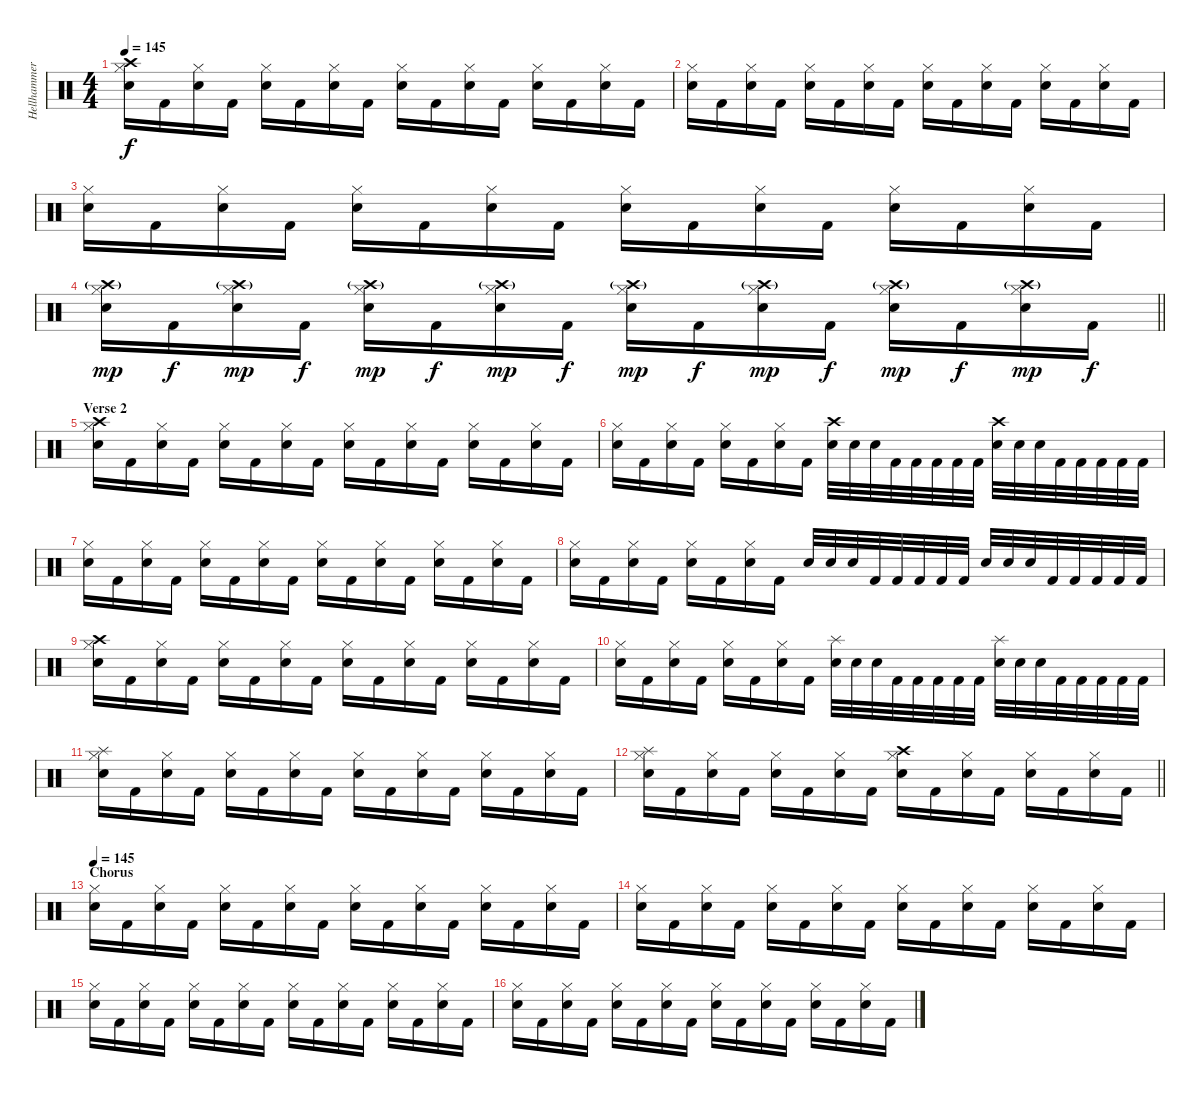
\track ("Hellhammer" "Hellhammer") {instrument percussion}
\staff {score}
\articulation defaults
\ts (4 4)
\tempo 145
\clef neutral
\ks c
("Crash high (hit)" "Hi-Hat (closed)" "Snare (hit) 2").16{dy f} "Kick (hit) 2".16 ("Hi-Hat (closed)" "Snare (hit) 2").16 "Kick (hit) 2".16 ("Hi-Hat (closed)" "Snare (hit) 2").16 "Kick (hit) 2".16 ("Hi-Hat (closed)" "Snare (hit) 2").16 "Kick (hit) 2".16 ("Hi-Hat (closed)" "Snare (hit) 2").16 "Kick (hit) 2".16 ("Hi-Hat (closed)" "Snare (hit) 2").16 "Kick (hit) 2".16 ("Hi-Hat (closed)" "Snare (hit) 2").16 "Kick (hit) 2".16 ("Hi-Hat (closed)" "Snare (hit) 2").16 "Kick (hit) 2".16 |
("Hi-Hat (closed)" "Snare (hit) 2").16 "Kick (hit) 2".16 ("Hi-Hat (closed)" "Snare (hit) 2").16 "Kick (hit) 2".16 ("Hi-Hat (closed)" "Snare (hit) 2").16 "Kick (hit) 2".16 ("Hi-Hat (closed)" "Snare (hit) 2").16 "Kick (hit) 2".16 ("Hi-Hat (closed)" "Snare (hit) 2").16 "Kick (hit) 2".16 ("Hi-Hat (closed)" "Snare (hit) 2").16 "Kick (hit) 2".16 ("Hi-Hat (closed)" "Snare (hit) 2").16 "Kick (hit) 2".16 ("Hi-Hat (closed)" "Snare (hit) 2").16 "Kick (hit) 2".16 |
("Hi-Hat (closed)" "Snare (hit) 2").16 "Kick (hit) 2".16 ("Hi-Hat (closed)" "Snare (hit) 2").16 "Kick (hit) 2".16 ("Hi-Hat (closed)" "Snare (hit) 2").16 "Kick (hit) 2".16 ("Hi-Hat (closed)" "Snare (hit) 2").16 "Kick (hit) 2".16 ("Hi-Hat (closed)" "Snare (hit) 2").16 "Kick (hit) 2".16 ("Hi-Hat (closed)" "Snare (hit) 2").16 "Kick (hit) 2".16 ("Hi-Hat (closed)" "Snare (hit) 2").16 "Kick (hit) 2".16 ("Hi-Hat (closed)" "Snare (hit) 2").16 "Kick (hit) 2".16 |
\barLineRight lightlight
("Crash high (hit)"{g} "Hi-Hat (closed)" "Snare (hit) 2").16{dy mp} "Kick (hit) 2".16{dy f} ("Crash high (hit)"{g} "Hi-Hat (closed)" "Snare (hit) 2").16{dy mp} "Kick (hit) 2".16{dy f} ("Crash high (hit)"{g} "Hi-Hat (closed)" "Snare (hit) 2").16{dy mp} "Kick (hit) 2".16{dy f} ("Crash high (hit)"{g} "Hi-Hat (closed)" "Snare (hit) 2").16{dy mp} "Kick (hit) 2".16{dy f} ("Crash high (hit)"{g} "Hi-Hat (closed)" "Snare (hit) 2").16{dy mp} "Kick (hit) 2".16{dy f} ("Crash high (hit)"{g} "Hi-Hat (closed)" "Snare (hit) 2").16{dy mp} "Kick (hit) 2".16{dy f} ("Crash high (hit)"{g} "Hi-Hat (closed)" "Snare (hit) 2").16{dy mp} "Kick (hit) 2".16{dy f} ("Crash high (hit)"{g} "Hi-Hat (closed)" "Snare (hit) 2").16{dy mp} "Kick (hit) 2".16{dy f} |
\section ("" "Verse 2")
("Crash high (hit)" "Hi-Hat (closed)" "Snare (hit) 2").16 "Kick (hit) 2".16 ("Hi-Hat (closed)" "Snare (hit) 2").16 "Kick (hit) 2".16 ("Hi-Hat (closed)" "Snare (hit) 2").16 "Kick (hit) 2".16 ("Hi-Hat (closed)" "Snare (hit) 2").16 "Kick (hit) 2".16 ("Hi-Hat (closed)" "Snare (hit) 2").16 "Kick (hit) 2".16 ("Hi-Hat (closed)" "Snare (hit) 2").16 "Kick (hit) 2".16 ("Hi-Hat (closed)" "Snare (hit) 2").16 "Kick (hit) 2".16 ("Hi-Hat (closed)" "Snare (hit) 2").16 "Kick (hit) 2".16 |
("Hi-Hat (closed)" "Snare (hit) 2").16 "Kick (hit) 2".16 ("Hi-Hat (closed)" "Snare (hit) 2").16 "Kick (hit) 2".16 ("Hi-Hat (closed)" "Snare (hit) 2").16 "Kick (hit) 2".16 ("Hi-Hat (closed)" "Snare (hit) 2").16 "Kick (hit) 2".16 ("Crash high (hit)" "Snare (hit) 2").32 "Snare (hit) 2".32 "Snare (hit) 2".32 "Kick (hit) 2".32 "Kick (hit) 2".32 "Kick (hit) 2".32 "Kick (hit) 2".32 "Kick (hit) 2".32 ("Crash high (hit)" "Snare (hit) 2").32 "Snare (hit) 2".32 "Snare (hit) 2".32 "Kick (hit) 2".32 "Kick (hit) 2".32 "Kick (hit) 2".32 "Kick (hit) 2".32 "Kick (hit) 2".32 |
("Hi-Hat (closed)" "Snare (hit) 2").16 "Kick (hit) 2".16 ("Hi-Hat (closed)" "Snare (hit) 2").16 "Kick (hit) 2".16 ("Hi-Hat (closed)" "Snare (hit) 2").16 "Kick (hit) 2".16 ("Hi-Hat (closed)" "Snare (hit) 2").16 "Kick (hit) 2".16 ("Hi-Hat (closed)" "Snare (hit) 2").16 "Kick (hit) 2".16 ("Hi-Hat (closed)" "Snare (hit) 2").16 "Kick (hit) 2".16 ("Hi-Hat (closed)" "Snare (hit) 2").16 "Kick (hit) 2".16 ("Hi-Hat (closed)" "Snare (hit) 2").16 "Kick (hit) 2".16 |
("Hi-Hat (closed)" "Snare (hit) 2").16 "Kick (hit) 2".16 ("Hi-Hat (closed)" "Snare (hit) 2").16 "Kick (hit) 2".16 ("Hi-Hat (closed)" "Snare (hit) 2").16 "Kick (hit) 2".16 ("Hi-Hat (closed)" "Snare (hit) 2").16 "Kick (hit) 2".16 "Snare (hit) 2".32 "Snare (hit) 2".32 "Snare (hit) 2".32 "Kick (hit) 2".32 "Kick (hit) 2".32 "Kick (hit) 2".32 "Kick (hit) 2".32 "Kick (hit) 2".32 "Snare (hit) 2".32 "Snare (hit) 2".32 "Snare (hit) 2".32 "Kick (hit) 2".32 "Kick (hit) 2".32 "Kick (hit) 2".32 "Kick (hit) 2".32 "Kick (hit) 2".32 |
("Crash high (hit)" "Hi-Hat (closed)" "Snare (hit) 2").16 "Kick (hit) 2".16 ("Hi-Hat (closed)" "Snare (hit) 2").16 "Kick (hit) 2".16 ("Hi-Hat (closed)" "Snare (hit) 2").16 "Kick (hit) 2".16 ("Hi-Hat (closed)" "Snare (hit) 2").16 "Kick (hit) 2".16 ("Hi-Hat (closed)" "Snare (hit) 2").16 "Kick (hit) 2".16 ("Hi-Hat (closed)" "Snare (hit) 2").16 "Kick (hit) 2".16 ("Hi-Hat (closed)" "Snare (hit) 2").16 "Kick (hit) 2".16 ("Hi-Hat (closed)" "Snare (hit) 2").16 "Kick (hit) 2".16 |
("Hi-Hat (closed)" "Snare (hit) 2").16 "Kick (hit) 2".16 ("Hi-Hat (closed)" "Snare (hit) 2").16 "Kick (hit) 2".16 ("Hi-Hat (closed)" "Snare (hit) 2").16 "Kick (hit) 2".16 ("Hi-Hat (closed)" "Snare (hit) 2").16 "Kick (hit) 2".16 ("Splash (hit)" "Snare (hit) 2").32 "Snare (hit) 2".32 "Snare (hit) 2".32 "Kick (hit) 2".32 "Kick (hit) 2".32 "Kick (hit) 2".32 "Kick (hit) 2".32 "Kick (hit) 2".32 ("Splash (hit)" "Snare (hit) 2").32 "Snare (hit) 2".32 "Snare (hit) 2".32 "Kick (hit) 2".32 "Kick (hit) 2".32 "Kick (hit) 2".32 "Kick (hit) 2".32 "Kick (hit) 2".32 |
("Splash (hit)" "Hi-Hat (closed)" "Snare (hit) 2").16 "Kick (hit) 2".16 ("Hi-Hat (closed)" "Snare (hit) 2").16 "Kick (hit) 2".16 ("Hi-Hat (closed)" "Snare (hit) 2").16 "Kick (hit) 2".16 ("Hi-Hat (closed)" "Snare (hit) 2").16 "Kick (hit) 2".16 ("Hi-Hat (closed)" "Snare (hit) 2").16 "Kick (hit) 2".16 ("Hi-Hat (closed)" "Snare (hit) 2").16 "Kick (hit) 2".16 ("Hi-Hat (closed)" "Snare (hit) 2").16 "Kick (hit) 2".16 ("Hi-Hat (closed)" "Snare (hit) 2").16 "Kick (hit) 2".16 |
\barLineRight lightlight
("Splash (hit)" "Hi-Hat (closed)" "Snare (hit) 2").16 "Kick (hit) 2".16 ("Hi-Hat (closed)" "Snare (hit) 2").16 "Kick (hit) 2".16 ("Hi-Hat (closed)" "Snare (hit) 2").16 "Kick (hit) 2".16 ("Hi-Hat (closed)" "Snare (hit) 2").16 "Kick (hit) 2".16 ("Crash high (hit)" "Hi-Hat (closed)" "Snare (hit) 2").16 "Kick (hit) 2".16 ("Hi-Hat (closed)" "Snare (hit) 2").16 "Kick (hit) 2".16 ("Hi-Hat (closed)" "Snare (hit) 2").16 "Kick (hit) 2".16 ("Hi-Hat (closed)" "Snare (hit) 2").16 "Kick (hit) 2".16 |
\section ("" "Chorus")
\tempo 145
("Hi-Hat (closed)" "Snare (hit) 2").16 "Kick (hit) 2".16 ("Hi-Hat (closed)" "Snare (hit) 2").16 "Kick (hit) 2".16 ("Hi-Hat (closed)" "Snare (hit) 2").16 "Kick (hit) 2".16 ("Hi-Hat (closed)" "Snare (hit) 2").16 "Kick (hit) 2".16 ("Hi-Hat (closed)" "Snare (hit) 2").16 "Kick (hit) 2".16 ("Hi-Hat (closed)" "Snare (hit) 2").16 "Kick (hit) 2".16 ("Hi-Hat (closed)" "Snare (hit) 2").16 "Kick (hit) 2".16 ("Hi-Hat (closed)" "Snare (hit) 2").16 "Kick (hit) 2".16 |
("Hi-Hat (closed)" "Snare (hit) 2").16 "Kick (hit) 2".16 ("Hi-Hat (closed)" "Snare (hit) 2").16 "Kick (hit) 2".16 ("Hi-Hat (closed)" "Snare (hit) 2").16 "Kick (hit) 2".16 ("Hi-Hat (closed)" "Snare (hit) 2").16 "Kick (hit) 2".16 ("Hi-Hat (closed)" "Snare (hit) 2").16 "Kick (hit) 2".16 ("Hi-Hat (closed)" "Snare (hit) 2").16 "Kick (hit) 2".16 ("Hi-Hat (closed)" "Snare (hit) 2").16 "Kick (hit) 2".16 ("Hi-Hat (closed)" "Snare (hit) 2").16 "Kick (hit) 2".16 |
("Hi-Hat (closed)" "Snare (hit) 2").16 "Kick (hit) 2".16 ("Hi-Hat (closed)" "Snare (hit) 2").16 "Kick (hit) 2".16 ("Hi-Hat (closed)" "Snare (hit) 2").16 "Kick (hit) 2".16 ("Hi-Hat (closed)" "Snare (hit) 2").16 "Kick (hit) 2".16 ("Hi-Hat (closed)" "Snare (hit) 2").16 "Kick (hit) 2".16 ("Hi-Hat (closed)" "Snare (hit) 2").16 "Kick (hit) 2".16 ("Hi-Hat (closed)" "Snare (hit) 2").16 "Kick (hit) 2".16 ("Hi-Hat (closed)" "Snare (hit) 2").16 "Kick (hit) 2".16 |
("Hi-Hat (closed)" "Snare (hit) 2").16 "Kick (hit) 2".16 ("Hi-Hat (closed)" "Snare (hit) 2").16 "Kick (hit) 2".16 ("Hi-Hat (closed)" "Snare (hit) 2").16 "Kick (hit) 2".16 ("Hi-Hat (closed)" "Snare (hit) 2").16 "Kick (hit) 2".16 ("Hi-Hat (closed)" "Snare (hit) 2").16 "Kick (hit) 2".16 ("Hi-Hat (closed)" "Snare (hit) 2").16 "Kick (hit) 2".16 ("Hi-Hat (closed)" "Snare (hit) 2").16 "Kick (hit) 2".16 ("Hi-Hat (closed)" "Snare (hit) 2").16 "Kick (hit) 2".16
